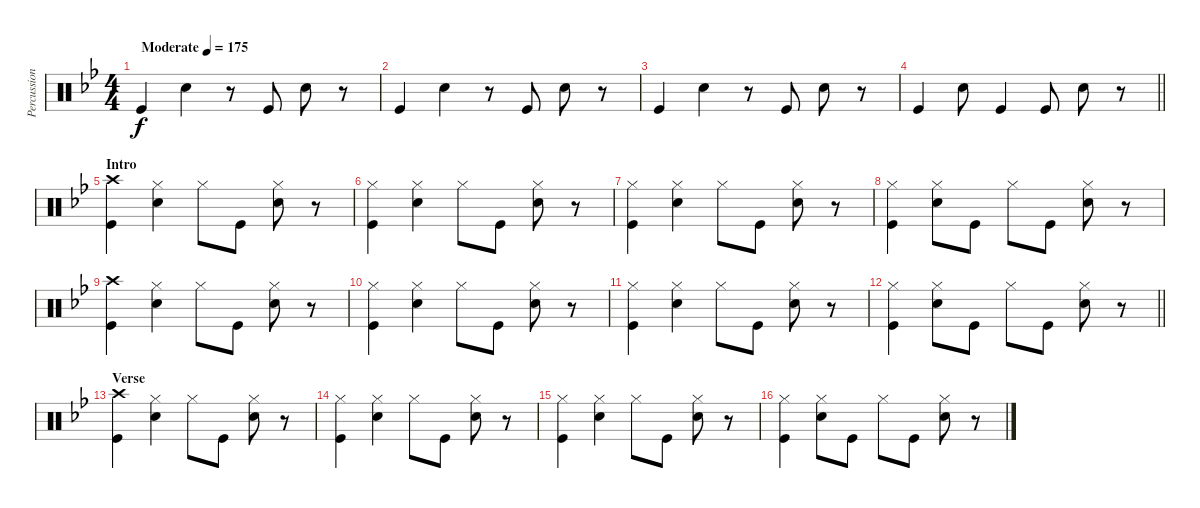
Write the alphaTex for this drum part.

\track ("Percussion" "Percussion") {instrument percussion}
\staff {score}
\articulation defaults
\ts (4 4)
\tempo (175 "Moderate")
\clef neutral
\ks bb "Kick (hit)".4{dy f} "Snare (hit) 2".4
r.8 "Kick (hit)".8 "Snare (hit) 2".8 r.8 |
"Kick (hit)".4 "Snare (hit) 2".4 r.8 "Kick (hit)".8 "Snare (hit) 2".8 r.8 |
"Kick (hit)".4 "Snare (hit) 2".4 r.8 "Kick (hit)".8 "Snare (hit) 2".8 r.8 |
\barLineRight lightlight "Kick (hit)".4 "Snare (hit) 2".8 "Kick (hit)".4 "Kick (hit)".8 "Snare (hit) 2".8
r.8 |
\section ("" "Intro")
("Kick (hit)" "Crash high (hit)").4 ("Snare (hit) 2" "Hi-Hat (closed)").4 "Hi-Hat (closed)".8 "Kick (hit)".8 ("Snare (hit) 2" "Hi-Hat (closed)").8 r.8 |
("Kick (hit)" "Hi-Hat (closed)").4 ("Snare (hit) 2" "Hi-Hat (closed)").4 "Hi-Hat (closed)".8 "Kick (hit)".8 ("Snare (hit) 2" "Hi-Hat (closed)").8 r.8 |
("Kick (hit)" "Hi-Hat (closed)").4 ("Snare (hit) 2" "Hi-Hat (closed)").4 "Hi-Hat (closed)".8 "Kick (hit)".8 ("Snare (hit) 2" "Hi-Hat (closed)").8 r.8 |
("Kick (hit)" "Hi-Hat (closed)").4 ("Snare (hit) 2" "Hi-Hat (closed)").8 "Kick (hit)".8 "Hi-Hat (closed)".8 "Kick (hit)".8 ("Snare (hit) 2" "Hi-Hat (closed)").8 r.8 |
("Kick (hit)" "Crash high (hit)").4 ("Snare (hit) 2" "Hi-Hat (closed)").4 "Hi-Hat (closed)".8 "Kick (hit)".8 ("Snare (hit) 2" "Hi-Hat (closed)").8 r.8 |
("Kick (hit)" "Hi-Hat (closed)").4 ("Snare (hit) 2" "Hi-Hat (closed)").4 "Hi-Hat (closed)".8 "Kick (hit)".8 ("Snare (hit) 2" "Hi-Hat (closed)").8 r.8 |
("Kick (hit)" "Hi-Hat (closed)").4 ("Snare (hit) 2" "Hi-Hat (closed)").4 "Hi-Hat (closed)".8 "Kick (hit)".8 ("Snare (hit) 2" "Hi-Hat (closed)").8 r.8 |
\barLineRight lightlight
("Kick (hit)" "Hi-Hat (closed)").4 ("Snare (hit) 2" "Hi-Hat (closed)").8 "Kick (hit)".8 "Hi-Hat (closed)".8 "Kick (hit)".8 ("Snare (hit) 2" "Hi-Hat (closed)").8 r.8 |
\section ("" "Verse")
("Kick (hit)" "Crash high (hit)").4 ("Snare (hit) 2" "Hi-Hat (closed)").4 "Hi-Hat (closed)".8 "Kick (hit)".8 ("Snare (hit) 2" "Hi-Hat (closed)").8 r.8 |
("Kick (hit)" "Hi-Hat (closed)").4 ("Snare (hit) 2" "Hi-Hat (closed)").4 "Hi-Hat (closed)".8 "Kick (hit)".8 ("Snare (hit) 2" "Hi-Hat (closed)").8 r.8 |
("Kick (hit)" "Hi-Hat (closed)").4 ("Snare (hit) 2" "Hi-Hat (closed)").4 "Hi-Hat (closed)".8 "Kick (hit)".8 ("Snare (hit) 2" "Hi-Hat (closed)").8 r.8 |
("Kick (hit)" "Hi-Hat (closed)").4 ("Snare (hit) 2" "Hi-Hat (closed)").8 "Kick (hit)".8 "Hi-Hat (closed)".8 "Kick (hit)".8 ("Snare (hit) 2" "Hi-Hat (closed)").8 r.8
